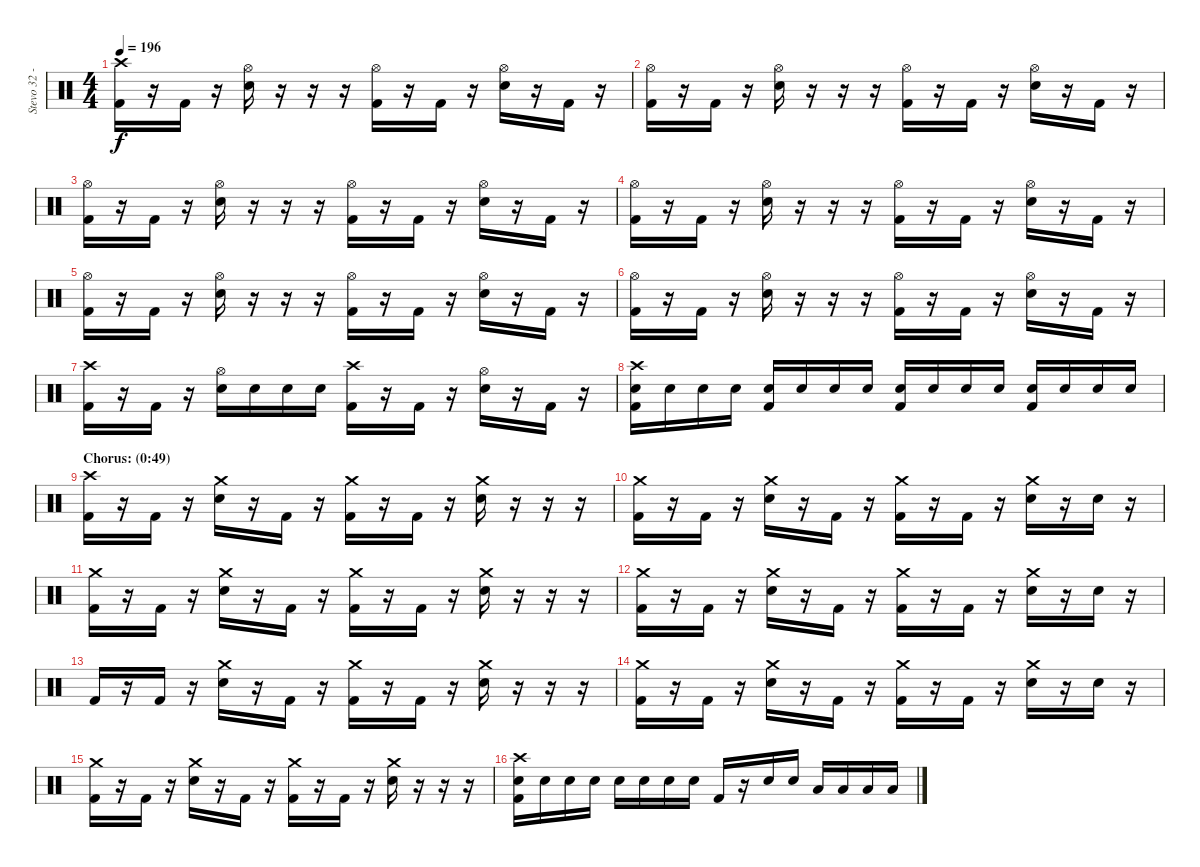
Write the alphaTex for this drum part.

\track ("Stevo 32 - Drums" "Stevo 32 -") {instrument percussion}
\staff {score}
\articulation defaults
\ts (4 4)
\tempo 196
\clef neutral
\ks c
("Crash high (hit)" "Kick (hit) 2").16{dy f} r.16 "Kick (hit) 2".16 r.16 ("Hi-Hat (open)" "Snare (hit) 2").16 r.16 r.16 r.16 ("Hi-Hat (open)" "Kick (hit) 2").16 r.16 "Kick (hit) 2".16 r.16 ("Hi-Hat (open)" "Snare (hit) 2").16 r.16 "Kick (hit) 2".16 r.16 |
("Hi-Hat (open)" "Kick (hit) 2").16 r.16 "Kick (hit) 2".16 r.16 ("Hi-Hat (open)" "Snare (hit) 2").16 r.16 r.16 r.16 ("Hi-Hat (open)" "Kick (hit) 2").16 r.16 "Kick (hit) 2".16 r.16 ("Hi-Hat (open)" "Snare (hit) 2").16 r.16 "Kick (hit) 2".16 r.16 |
("Hi-Hat (open)" "Kick (hit) 2").16 r.16 "Kick (hit) 2".16 r.16 ("Hi-Hat (open)" "Snare (hit) 2").16 r.16 r.16 r.16 ("Hi-Hat (open)" "Kick (hit) 2").16 r.16 "Kick (hit) 2".16 r.16 ("Hi-Hat (open)" "Snare (hit) 2").16 r.16 "Kick (hit) 2".16 r.16 |
("Hi-Hat (open)" "Kick (hit) 2").16 r.16 "Kick (hit) 2".16 r.16 ("Hi-Hat (open)" "Snare (hit) 2").16 r.16 r.16 r.16 ("Hi-Hat (open)" "Kick (hit) 2").16 r.16 "Kick (hit) 2".16 r.16 ("Hi-Hat (open)" "Snare (hit) 2").16 r.16 "Kick (hit) 2".16 r.16 |
("Hi-Hat (open)" "Kick (hit) 2").16 r.16 "Kick (hit) 2".16 r.16 ("Hi-Hat (open)" "Snare (hit) 2").16 r.16 r.16 r.16 ("Hi-Hat (open)" "Kick (hit) 2").16 r.16 "Kick (hit) 2".16 r.16 ("Hi-Hat (open)" "Snare (hit) 2").16 r.16 "Kick (hit) 2".16 r.16 |
("Hi-Hat (open)" "Kick (hit) 2").16 r.16 "Kick (hit) 2".16 r.16 ("Hi-Hat (open)" "Snare (hit) 2").16 r.16 r.16 r.16 ("Hi-Hat (open)" "Kick (hit) 2").16 r.16 "Kick (hit) 2".16 r.16 ("Hi-Hat (open)" "Snare (hit) 2").16 r.16 "Kick (hit) 2".16 r.16 |
("Crash high (hit)" "Kick (hit) 2").16 r.16 "Kick (hit) 2".16 r.16 ("Hi-Hat (open)" "Snare (hit) 2").16 "Snare (hit) 2".16 "Snare (hit) 2".16 "Snare (hit) 2".16 ("Crash high (hit)" "Kick (hit) 2").16 r.16 "Kick (hit) 2".16 r.16 ("Hi-Hat (open)" "Snare (hit) 2").16 r.16 "Kick (hit) 2".16 r.16 |
("Crash high (hit)" "Snare (hit) 2" "Kick (hit) 2").16 "Snare (hit) 2".16 "Snare (hit) 2".16 "Snare (hit) 2".16 ("Snare (hit) 2" "Kick (hit) 2").16 "Snare (hit) 2".16 "Snare (hit) 2".16 "Snare (hit) 2".16 ("Snare (hit) 2" "Kick (hit) 2").16 "Snare (hit) 2".16 "Snare (hit) 2".16 "Snare (hit) 2".16 ("Snare (hit) 2" "Kick (hit) 2").16 "Snare (hit) 2".16 "Snare (hit) 2".16 "Snare (hit) 2".16 |
\section ("" "Chorus: (0:49)")
("Crash high (hit)" "Kick (hit) 2").16 r.16 "Kick (hit) 2".16 r.16 ("Crash medium (hit)" "Snare (hit) 2").16 r.16 "Kick (hit) 2".16 r.16 ("Crash medium (hit)" "Kick (hit) 2").16 r.16 "Kick (hit) 2".16 r.16 ("Crash medium (hit)" "Snare (hit) 2").16 r.16 r.16 r.16 |
("Crash medium (hit)" "Kick (hit) 2").16 r.16 "Kick (hit) 2".16 r.16 ("Crash medium (hit)" "Snare (hit) 2").16 r.16 "Kick (hit) 2".16 r.16 ("Crash medium (hit)" "Kick (hit) 2").16 r.16 "Kick (hit) 2".16 r.16 ("Crash medium (hit)" "Snare (hit) 2").16 r.16 "Snare (hit) 2".16 r.16 |
("Crash medium (hit)" "Kick (hit) 2").16 r.16 "Kick (hit) 2".16 r.16 ("Crash medium (hit)" "Snare (hit) 2").16 r.16 "Kick (hit) 2".16 r.16 ("Crash medium (hit)" "Kick (hit) 2").16 r.16 "Kick (hit) 2".16 r.16 ("Crash medium (hit)" "Snare (hit) 2").16 r.16 r.16 r.16 |
("Crash medium (hit)" "Kick (hit) 2").16 r.16 "Kick (hit) 2".16 r.16 ("Crash medium (hit)" "Snare (hit) 2").16 r.16 "Kick (hit) 2".16 r.16 ("Crash medium (hit)" "Kick (hit) 2").16 r.16 "Kick (hit) 2".16 r.16 ("Crash medium (hit)" "Snare (hit) 2").16 r.16 "Snare (hit) 2".16 r.16 |
"Kick (hit) 2".16 r.16 "Kick (hit) 2".16 r.16 ("Crash medium (hit)" "Snare (hit) 2").16 r.16 "Kick (hit) 2".16 r.16 ("Crash medium (hit)" "Kick (hit) 2").16 r.16 "Kick (hit) 2".16 r.16 ("Crash medium (hit)" "Snare (hit) 2").16 r.16 r.16 r.16 |
("Crash medium (hit)" "Kick (hit) 2").16 r.16 "Kick (hit) 2".16 r.16 ("Crash medium (hit)" "Snare (hit) 2").16 r.16 "Kick (hit) 2".16 r.16 ("Crash medium (hit)" "Kick (hit) 2").16 r.16 "Kick (hit) 2".16 r.16 ("Crash medium (hit)" "Snare (hit) 2").16 r.16 "Snare (hit) 2".16 r.16 |
("Crash medium (hit)" "Kick (hit) 2").16 r.16 "Kick (hit) 2".16 r.16 ("Crash medium (hit)" "Snare (hit) 2").16 r.16 "Kick (hit) 2".16 r.16 ("Crash medium (hit)" "Kick (hit) 2").16 r.16 "Kick (hit) 2".16 r.16 ("Crash medium (hit)" "Snare (hit) 2").16 r.16 r.16 r.16 |
("Crash high (hit)" "Snare (hit) 2" "Kick (hit) 2").16 "Snare (hit) 2".16 "Snare (hit) 2".16 "Snare (hit) 2".16 "Snare (hit) 2".16 "Snare (hit) 2".16 "Snare (hit) 2".16 "Snare (hit) 2".16 "Kick (hit) 2".16 r.16 "Snare (hit) 2".16 "Snare (hit) 2".16 "Low Floor Tom (hit)".16 "Low Floor Tom (hit)".16 "Low Tom (hit)".16 "Low Tom (hit)".16
